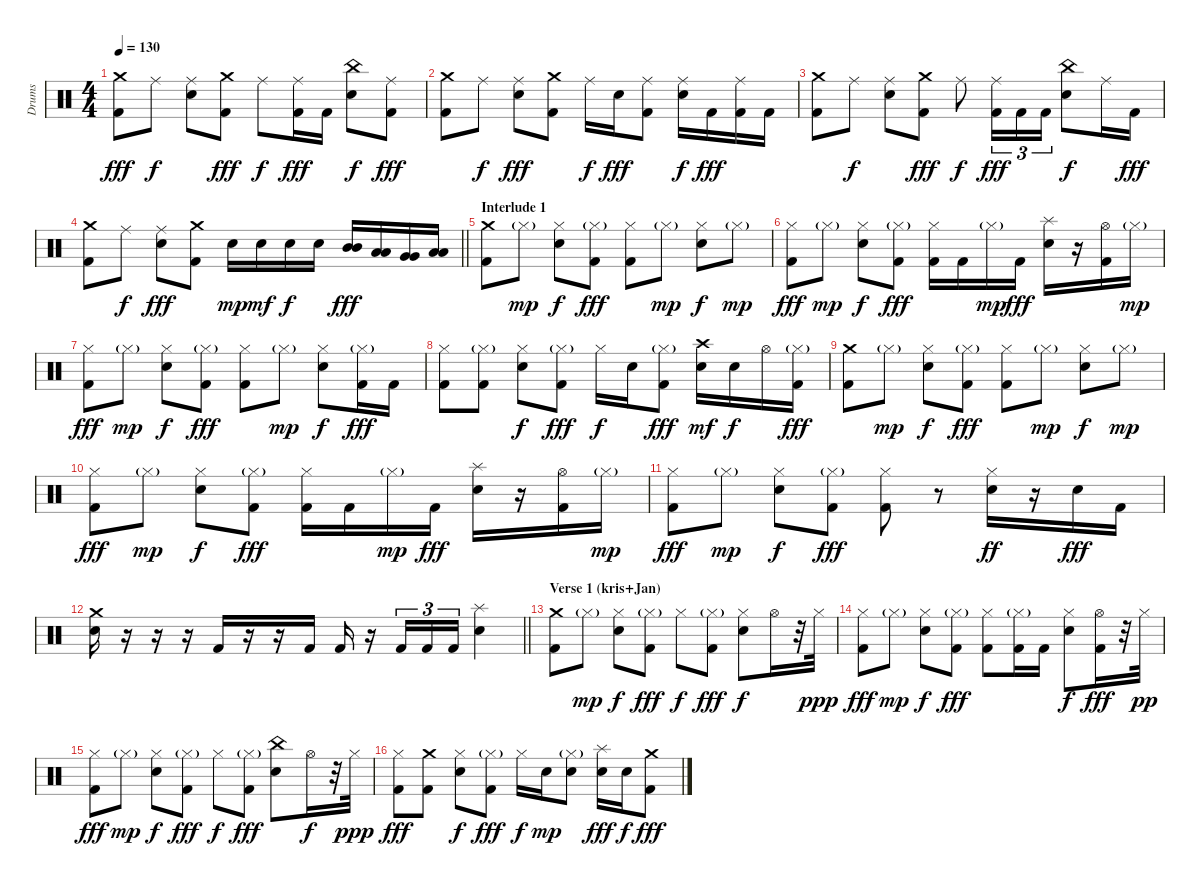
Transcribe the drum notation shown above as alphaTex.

\track ("Drums" "Drums") {instrument percussion}
\staff {score}
\articulation defaults
\ts (4 4)
\tempo 130
\clef neutral
\ks c
("Crash medium (hit)" "Kick (hit) 2").8{dy fff} "Ride (middle)".8{dy f} ("Ride (middle)" "Snare (hit) 2").8 ("Crash medium (hit)" "Kick (hit) 2").8{dy fff} "Ride (middle)".8{dy f} ("Ride (middle)" "Kick (hit) 2").16{dy fff} "Kick (hit) 2".16 ("China (hit)" "Snare (hit) 2").8{dy f} ("Ride (middle)" "Kick (hit) 2").8{dy fff} |
("Crash medium (hit)" "Kick (hit) 2").8 "Ride (middle)".8{dy f} ("Ride (middle)" "Snare (hit) 2").8{dy fff} ("Crash medium (hit)" "Kick (hit) 2").8 "Ride (middle)".16{dy f} "Snare (hit) 2".16{dy fff} ("Ride (middle)" "Kick (hit) 2").8 ("Ride (middle)" "Snare (hit) 2").16{dy f} "Kick (hit) 2".16{dy fff} ("Ride (middle)" "Kick (hit) 2").16 "Kick (hit) 2".16 |
("Crash medium (hit)" "Kick (hit) 2").8 "Ride (middle)".8{dy f} ("Ride (middle)" "Snare (hit) 2").8 ("Crash medium (hit)" "Kick (hit) 2").8{dy fff} "Ride (middle)".8{dy f} ("Ride (middle)" "Kick (hit) 2").16{tu (3 2) dy fff} "Kick (hit) 2".16{tu (3 2)} "Kick (hit) 2".16{tu (3 2)} ("China (hit)" "Snare (hit) 2").8{dy f} "Ride (middle)".16 "Kick (hit) 2".16{dy fff} |
\barLineRight lightlight
("Crash medium (hit)" "Kick (hit) 2").8 "Ride (middle)".8{dy f} ("Ride (middle)" "Snare (hit) 2").8{dy fff} ("Crash medium (hit)" "Kick (hit) 2").8 "Snare (hit) 2".16{dy mp} "Snare (hit) 2".16{dy mf} "Snare (hit) 2".16{dy f} "Snare (hit) 2".16 ("Mid Tom (hit)" "Mid Tom (hit)").16{dy fff} ("Low Tom (hit)" "Low Tom (hit)").16 ("Very Low Tom (hit)" "Very Low Tom (hit)").16 ("Low Floor Tom (hit)" "Low Floor Tom (hit)").16 |
\section ("" "Interlude 1")
("Crash medium (hit)" "Kick (hit) 2").8 "Hi-Hat (closed)"{g}.8{dy mp} ("Hi-Hat (closed)" "Snare (hit) 2").8{dy f} ("Hi-Hat (closed)"{g} "Kick (hit) 2").8{dy fff} ("Hi-Hat (closed)" "Kick (hit) 2").8 "Hi-Hat (closed)"{g}.8{dy mp} ("Hi-Hat (closed)" "Snare (hit) 2").8{dy f} "Hi-Hat (closed)"{g}.8{dy mp} |
("Hi-Hat (closed)" "Kick (hit) 2").8{dy fff} "Hi-Hat (closed)"{g}.8{dy mp} ("Hi-Hat (closed)" "Snare (hit) 2").8{dy f} ("Hi-Hat (closed)"{g} "Kick (hit) 2").8{dy fff} ("Hi-Hat (closed)" "Kick (hit) 2").16 "Kick (hit) 2".16 "Hi-Hat (closed)"{g}.16{dy mp} "Kick (hit) 2".16{dy fff} ("Splash (hit)" "Snare (hit) 2").16 r.16 ("Hi-Hat (open)" "Kick (hit) 2").16 "Hi-Hat (closed)"{g}.16{dy mp} |
("Hi-Hat (closed)" "Kick (hit) 2").8{dy fff} "Hi-Hat (closed)"{g}.8{dy mp} ("Hi-Hat (closed)" "Snare (hit) 2").8{dy f} ("Hi-Hat (closed)"{g} "Kick (hit) 2").8{dy fff} ("Hi-Hat (closed)" "Kick (hit) 2").8 "Hi-Hat (closed)"{g}.8{dy mp} ("Hi-Hat (closed)" "Snare (hit) 2").8{dy f} ("Hi-Hat (closed)"{g} "Kick (hit) 2").16{dy fff} "Kick (hit) 2".16 |
("Hi-Hat (closed)" "Kick (hit) 2").8 ("Hi-Hat (closed)"{g} "Kick (hit) 2").8 ("Hi-Hat (closed)" "Snare (hit) 2").8{dy f} ("Hi-Hat (closed)"{g} "Kick (hit) 2").8{dy fff} "Hi-Hat (closed)".16{dy f} "Snare (hit) 2".16 ("Hi-Hat (closed)"{g} "Kick (hit) 2").8{dy fff} ("Crash high (hit)" "Snare (hit) 2").16{dy mf} "Snare (hit) 2".16{dy f} "Hi-Hat (open)".16 ("Hi-Hat (closed)"{g} "Kick (hit) 2").16{dy fff} |
("Crash medium (hit)" "Kick (hit) 2").8 "Hi-Hat (closed)"{g}.8{dy mp} ("Hi-Hat (closed)" "Snare (hit) 2").8{dy f} ("Hi-Hat (closed)"{g} "Kick (hit) 2").8{dy fff} ("Hi-Hat (closed)" "Kick (hit) 2").8 "Hi-Hat (closed)"{g}.8{dy mp} ("Hi-Hat (closed)" "Snare (hit) 2").8{dy f} "Hi-Hat (closed)"{g}.8{dy mp} |
("Hi-Hat (closed)" "Kick (hit) 2").8{dy fff} "Hi-Hat (closed)"{g}.8{dy mp} ("Hi-Hat (closed)" "Snare (hit) 2").8{dy f} ("Hi-Hat (closed)"{g} "Kick (hit) 2").8{dy fff} ("Hi-Hat (closed)" "Kick (hit) 2").16 "Kick (hit) 2".16 "Hi-Hat (closed)"{g}.16{dy mp} "Kick (hit) 2".16{dy fff} ("Splash (hit)" "Snare (hit) 2").16 r.16 ("Hi-Hat (open)" "Kick (hit) 2").16 "Hi-Hat (closed)"{g}.16{dy mp} |
("Hi-Hat (closed)" "Kick (hit) 2").8{dy fff} "Hi-Hat (closed)"{g}.8{dy mp} ("Hi-Hat (closed)" "Snare (hit) 2").8{dy f} ("Hi-Hat (closed)"{g} "Kick (hit) 2").8{dy fff} ("Hi-Hat (closed)" "Kick (hit) 2").8 r.8 ("Hi-Hat (closed)" "Snare (hit) 2").16{dy ff} r.16 "Snare (hit) 2".16{dy fff} "Kick (hit) 2".16 |
\barLineRight lightlight
("Crash medium (hit)" "Snare (hit) 2").16 r.16 r.16 r.16 "Kick (hit) 2".16 r.16 r.16 "Kick (hit) 2".16 "Kick (hit) 2".16 r.16 "Kick (hit) 2".16{tu (3 2)} "Kick (hit) 2".16{tu (3 2)} "Kick (hit) 2".16{tu (3 2)} ("Splash (hit)" "Snare (hit) 2").4 |
\section ("" "Verse 1 (kris+Jan)")
("Crash medium (hit)" "Kick (hit) 2").8 "Hi-Hat (closed)"{g}.8{dy mp} ("Hi-Hat (closed)" "Snare (hit) 2").8{dy f} ("Hi-Hat (closed)"{g} "Kick (hit) 2").8{dy fff} "Hi-Hat (closed)".8{dy f} ("Hi-Hat (closed)"{g} "Kick (hit) 2").8{dy fff} ("Hi-Hat (closed)" "Snare (hit) 2").8{dy f} "Hi-Hat (open)".16 r.32 "Hi-Hat (closed)".32{dy ppp} |
("Hi-Hat (closed)" "Kick (hit) 2").8{dy fff} "Hi-Hat (closed)"{g}.8{dy mp} ("Hi-Hat (closed)" "Snare (hit) 2").8{dy f} ("Hi-Hat (closed)"{g} "Kick (hit) 2").8{dy fff} ("Hi-Hat (closed)" "Kick (hit) 2").8 ("Hi-Hat (closed)"{g} "Kick (hit) 2").16 "Kick (hit) 2".16 ("Hi-Hat (closed)" "Snare (hit) 2").8{dy f} ("Hi-Hat (open)" "Kick (hit) 2").16{dy fff} r.32 "Hi-Hat (closed)".32{dy pp} |
("Hi-Hat (closed)" "Kick (hit) 2").8{dy fff} "Hi-Hat (closed)"{g}.8{dy mp} ("Hi-Hat (closed)" "Snare (hit) 2").8{dy f} ("Hi-Hat (closed)"{g} "Kick (hit) 2").8{dy fff} "Hi-Hat (closed)".8{dy f} ("Hi-Hat (closed)"{g} "Kick (hit) 2").8{dy fff} ("China (hit)" "Snare (hit) 2").8 "Hi-Hat (open)".16{dy f} r.32 "Hi-Hat (closed)".32{dy ppp} |
("Hi-Hat (closed)" "Kick (hit) 2").8{dy fff} ("Crash medium (hit)" "Kick (hit) 2").8 ("Hi-Hat (closed)" "Snare (hit) 2").8{dy f} ("Hi-Hat (closed)"{g} "Kick (hit) 2").8{dy fff} "Hi-Hat (closed)".16{dy f} "Snare (hit) 2".16{dy mp} ("Hi-Hat (closed)"{g} "Snare (hit) 2").8 ("Splash (hit)" "Snare (hit) 2").16{dy fff} "Snare (hit) 2".16{dy f} ("Crash medium (hit)" "Kick (hit) 2").8{dy fff}
